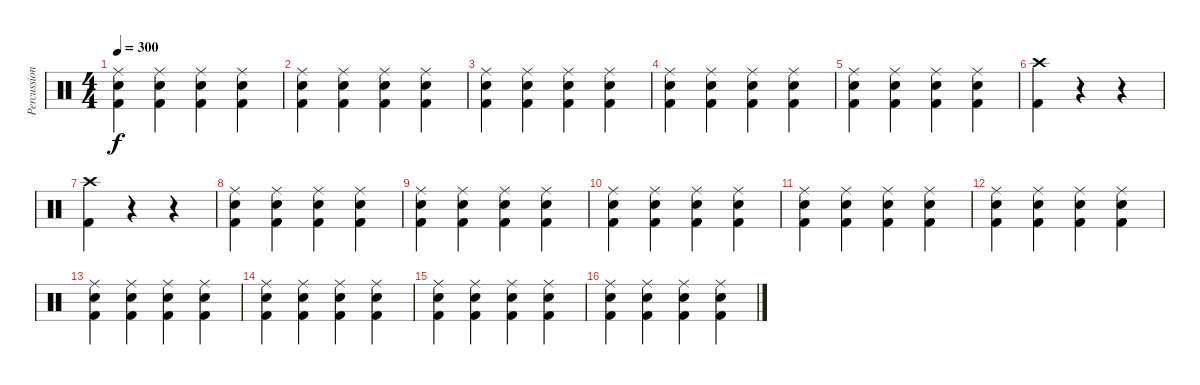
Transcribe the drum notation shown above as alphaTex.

\track ("Percussion" "Percussion") {instrument percussion}
\staff {score}
\articulation defaults
\ts (4 4)
\tempo 300
\clef neutral
\ks c
("Ride (middle)" "Snare (hit) 2" "Kick (hit) 2").4{dy f} ("Ride (middle)" "Snare (hit) 2" "Kick (hit) 2").4 ("Ride (middle)" "Snare (hit) 2" "Kick (hit) 2").4 ("Ride (middle)" "Snare (hit) 2" "Kick (hit) 2").4 |
("Ride (middle)" "Snare (hit) 2" "Kick (hit) 2").4 ("Ride (middle)" "Snare (hit) 2" "Kick (hit) 2").4 ("Ride (middle)" "Snare (hit) 2" "Kick (hit) 2").4 ("Ride (middle)" "Snare (hit) 2" "Kick (hit) 2").4 |
("Ride (middle)" "Snare (hit) 2" "Kick (hit) 2").4 ("Ride (middle)" "Snare (hit) 2" "Kick (hit) 2").4 ("Ride (middle)" "Snare (hit) 2" "Kick (hit) 2").4 ("Ride (middle)" "Snare (hit) 2" "Kick (hit) 2").4 |
("Ride (middle)" "Snare (hit) 2" "Kick (hit) 2").4 ("Ride (middle)" "Snare (hit) 2" "Kick (hit) 2").4 ("Ride (middle)" "Snare (hit) 2" "Kick (hit) 2").4 ("Ride (middle)" "Snare (hit) 2" "Kick (hit) 2").4 |
("Ride (middle)" "Snare (hit) 2" "Kick (hit) 2").4 ("Ride (middle)" "Snare (hit) 2" "Kick (hit) 2").4 ("Ride (middle)" "Snare (hit) 2" "Kick (hit) 2").4 ("Ride (middle)" "Snare (hit) 2" "Kick (hit) 2").4 |
("Crash high (hit)" "Kick (hit) 2").4 r.4 r.4 |
("Crash high (hit)" "Kick (hit) 2").4 r.4 r.4 |
("Ride (middle)" "Snare (hit) 2" "Kick (hit) 2").4 ("Ride (middle)" "Snare (hit) 2" "Kick (hit) 2").4 ("Ride (middle)" "Snare (hit) 2" "Kick (hit) 2").4 ("Ride (middle)" "Snare (hit) 2" "Kick (hit) 2").4 |
("Ride (middle)" "Snare (hit) 2" "Kick (hit) 2").4 ("Ride (middle)" "Snare (hit) 2" "Kick (hit) 2").4 ("Ride (middle)" "Snare (hit) 2" "Kick (hit) 2").4 ("Ride (middle)" "Snare (hit) 2" "Kick (hit) 2").4 |
("Ride (middle)" "Snare (hit) 2" "Kick (hit) 2").4 ("Ride (middle)" "Snare (hit) 2" "Kick (hit) 2").4 ("Ride (middle)" "Snare (hit) 2" "Kick (hit) 2").4 ("Ride (middle)" "Snare (hit) 2" "Kick (hit) 2").4 |
("Ride (middle)" "Snare (hit) 2" "Kick (hit) 2").4 ("Ride (middle)" "Snare (hit) 2" "Kick (hit) 2").4 ("Ride (middle)" "Snare (hit) 2" "Kick (hit) 2").4 ("Ride (middle)" "Snare (hit) 2" "Kick (hit) 2").4 |
("Ride (middle)" "Snare (hit) 2" "Kick (hit) 2").4 ("Ride (middle)" "Snare (hit) 2" "Kick (hit) 2").4 ("Ride (middle)" "Snare (hit) 2" "Kick (hit) 2").4 ("Ride (middle)" "Snare (hit) 2" "Kick (hit) 2").4 |
("Ride (middle)" "Snare (hit) 2" "Kick (hit) 2").4 ("Ride (middle)" "Snare (hit) 2" "Kick (hit) 2").4 ("Ride (middle)" "Snare (hit) 2" "Kick (hit) 2").4 ("Ride (middle)" "Snare (hit) 2" "Kick (hit) 2").4 |
("Ride (middle)" "Snare (hit) 2" "Kick (hit) 2").4 ("Ride (middle)" "Snare (hit) 2" "Kick (hit) 2").4 ("Ride (middle)" "Snare (hit) 2" "Kick (hit) 2").4 ("Ride (middle)" "Snare (hit) 2" "Kick (hit) 2").4 |
("Ride (middle)" "Snare (hit) 2" "Kick (hit) 2").4 ("Ride (middle)" "Snare (hit) 2" "Kick (hit) 2").4 ("Ride (middle)" "Snare (hit) 2" "Kick (hit) 2").4 ("Ride (middle)" "Snare (hit) 2" "Kick (hit) 2").4 |
("Ride (middle)" "Snare (hit) 2" "Kick (hit) 2").4 ("Ride (middle)" "Snare (hit) 2" "Kick (hit) 2").4 ("Ride (middle)" "Snare (hit) 2" "Kick (hit) 2").4 ("Ride (middle)" "Snare (hit) 2" "Kick (hit) 2").4
